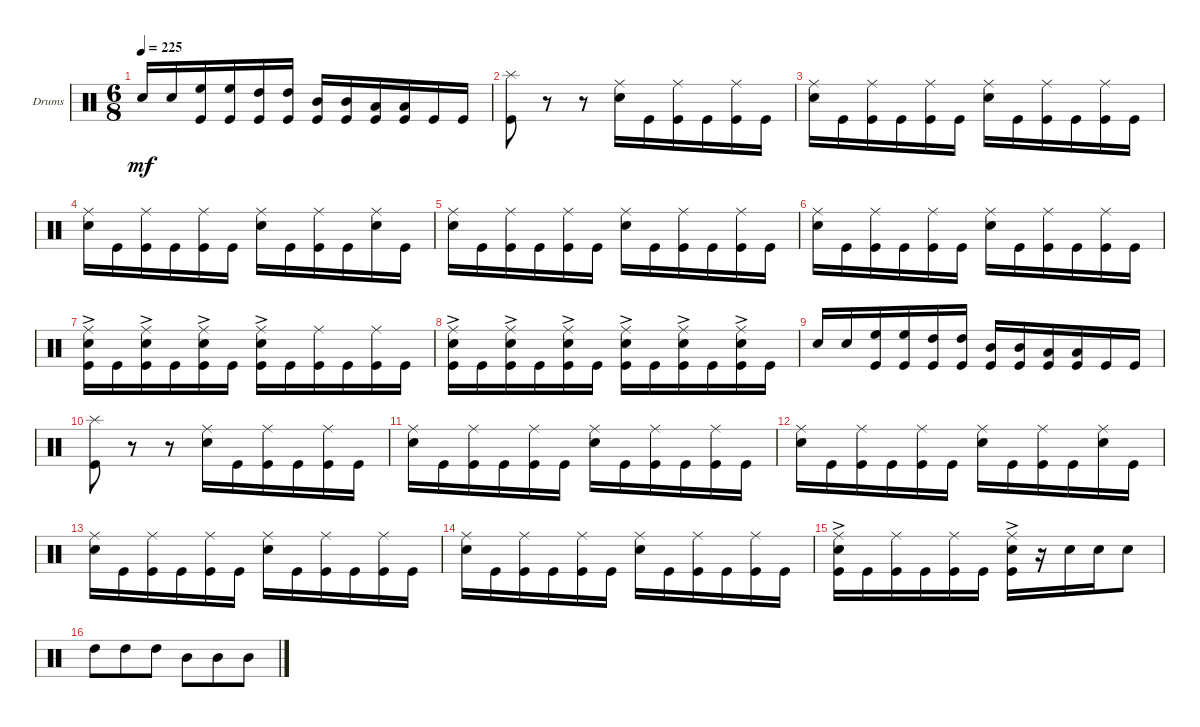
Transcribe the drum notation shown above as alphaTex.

\bracketExtendMode groupsimilarinstruments
\firstSystemTrackNameOrientation horizontal
\otherSystemsTrackNameOrientation horizontal
\track ("Drumkit" "Drums") {instrument percussion}
\staff {score}
\articulation defaults
\ts (6 8)
\tempo 225
\clef neutral
\ks c "Snare (hit) 2".16{dy mf} "Snare (hit) 2".16
("Kick (hit)" "High Floor Tom (hit)").16 ("Kick (hit)" "High Floor Tom (hit)").16 ("Kick (hit)" "High Tom (hit)").16 ("Kick (hit)" "High Tom (hit)").16 ("Kick (hit)" "Mid Tom (hit)").16 ("Kick (hit)" "Mid Tom (hit)").16 ("Kick (hit)" "Low Tom (hit)").16 ("Kick (hit)" "Low Tom (hit)").16 "Kick (hit)".16 "Kick (hit)".16 |
("Kick (hit)" "Splash (hit)").8 r.8 r.8 ("Snare (hit) 2" "Ride (middle)").16 "Kick (hit)".16 ("Kick (hit)" "Ride (middle)").16 "Kick (hit)".16 ("Kick (hit)" "Ride (middle)").16 "Kick (hit)".16 |
("Snare (hit) 2" "Ride (middle)").16 "Kick (hit)".16 ("Kick (hit)" "Ride (middle)").16 "Kick (hit)".16 ("Kick (hit)" "Ride (middle)").16 "Kick (hit)".16 ("Snare (hit) 2" "Ride (middle)").16 "Kick (hit)".16 ("Kick (hit)" "Ride (middle)").16 "Kick (hit)".16 ("Kick (hit)" "Ride (middle)").16 "Kick (hit)".16 |
("Snare (hit) 2" "Ride (middle)").16 "Kick (hit)".16 ("Kick (hit)" "Ride (middle)").16 "Kick (hit)".16 ("Kick (hit)" "Ride (middle)").16 "Kick (hit)".16 ("Snare (hit) 2" "Ride (middle)").16 "Kick (hit)".16 ("Kick (hit)" "Ride (middle)").16 "Kick (hit)".16 ("Ride (middle)" "Snare (hit) 2").16 "Kick (hit)".16 |
("Snare (hit) 2" "Ride (middle)").16 "Kick (hit)".16 ("Kick (hit)" "Ride (middle)").16 "Kick (hit)".16 ("Kick (hit)" "Ride (middle)").16 "Kick (hit)".16 ("Snare (hit) 2" "Ride (middle)").16 "Kick (hit)".16 ("Kick (hit)" "Ride (middle)").16 "Kick (hit)".16 ("Kick (hit)" "Ride (middle)").16 "Kick (hit)".16 |
("Snare (hit) 2" "Ride (middle)").16 "Kick (hit)".16 ("Kick (hit)" "Ride (middle)").16 "Kick (hit)".16 ("Kick (hit)" "Ride (middle)").16 "Kick (hit)".16 ("Snare (hit) 2" "Ride (middle)").16 "Kick (hit)".16 ("Kick (hit)" "Ride (middle)").16 "Kick (hit)".16 ("Kick (hit)" "Ride (middle)").16 "Kick (hit)".16 |
("Snare (hit) 2"{ac} "Kick (hit)" "Ride (middle)").16 "Kick (hit)".16 ("Snare (hit) 2"{ac} "Kick (hit)" "Ride (middle)").16 "Kick (hit)".16 ("Snare (hit) 2"{ac} "Kick (hit)" "Ride (middle)").16 "Kick (hit)".16 ("Snare (hit) 2"{ac} "Kick (hit)" "Ride (middle)").16 "Kick (hit)".16 ("Kick (hit)" "Ride (middle)").16 "Kick (hit)".16 ("Kick (hit)" "Ride (middle)").16 "Kick (hit)".16 |
("Snare (hit) 2"{ac} "Kick (hit)" "Ride (middle)").16 "Kick (hit)".16 ("Snare (hit) 2"{ac} "Kick (hit)" "Ride (middle)").16 "Kick (hit)".16 ("Snare (hit) 2"{ac} "Kick (hit)" "Ride (middle)").16 "Kick (hit)".16 ("Snare (hit) 2"{ac} "Kick (hit)" "Ride (middle)").16 "Kick (hit)".16 ("Kick (hit)" "Snare (hit) 2"{ac} "Ride (middle)").16 "Kick (hit)".16 ("Kick (hit)" "Snare (hit) 2"{ac} "Ride (middle)").16 "Kick (hit)".16 |
"Snare (hit) 2".16 "Snare (hit) 2".16 ("Kick (hit)" "High Floor Tom (hit)").16 ("Kick (hit)" "High Floor Tom (hit)").16 ("Kick (hit)" "High Tom (hit)").16 ("Kick (hit)" "High Tom (hit)").16 ("Kick (hit)" "Mid Tom (hit)").16 ("Kick (hit)" "Mid Tom (hit)").16 ("Kick (hit)" "Low Tom (hit)").16 ("Kick (hit)" "Low Tom (hit)").16 "Kick (hit)".16 "Kick (hit)".16 |
("Kick (hit)" "Splash (hit)").8 r.8 r.8 ("Snare (hit) 2" "Ride (middle)").16 "Kick (hit)".16 ("Kick (hit)" "Ride (middle)").16 "Kick (hit)".16 ("Kick (hit)" "Ride (middle)").16 "Kick (hit)".16 |
("Snare (hit) 2" "Ride (middle)").16 "Kick (hit)".16 ("Kick (hit)" "Ride (middle)").16 "Kick (hit)".16 ("Kick (hit)" "Ride (middle)").16 "Kick (hit)".16 ("Snare (hit) 2" "Ride (middle)").16 "Kick (hit)".16 ("Kick (hit)" "Ride (middle)").16 "Kick (hit)".16 ("Kick (hit)" "Ride (middle)").16 "Kick (hit)".16 |
("Snare (hit) 2" "Ride (middle)").16 "Kick (hit)".16 ("Kick (hit)" "Ride (middle)").16 "Kick (hit)".16 ("Kick (hit)" "Ride (middle)").16 "Kick (hit)".16 ("Snare (hit) 2" "Ride (middle)").16 "Kick (hit)".16 ("Kick (hit)" "Ride (middle)").16 "Kick (hit)".16 ("Ride (middle)" "Snare (hit) 2").16 "Kick (hit)".16 |
("Snare (hit) 2" "Ride (middle)").16 "Kick (hit)".16 ("Kick (hit)" "Ride (middle)").16 "Kick (hit)".16 ("Kick (hit)" "Ride (middle)").16 "Kick (hit)".16 ("Snare (hit) 2" "Ride (middle)").16 "Kick (hit)".16 ("Kick (hit)" "Ride (middle)").16 "Kick (hit)".16 ("Kick (hit)" "Ride (middle)").16 "Kick (hit)".16 |
("Snare (hit) 2" "Ride (middle)").16 "Kick (hit)".16 ("Kick (hit)" "Ride (middle)").16 "Kick (hit)".16 ("Kick (hit)" "Ride (middle)").16 "Kick (hit)".16 ("Snare (hit) 2" "Ride (middle)").16 "Kick (hit)".16 ("Kick (hit)" "Ride (middle)").16 "Kick (hit)".16 ("Kick (hit)" "Ride (middle)").16 "Kick (hit)".16 |
("Snare (hit) 2"{ac} "Kick (hit)" "Ride (middle)").16 "Kick (hit)".16 ("Kick (hit)" "Ride (middle)").16 "Kick (hit)".16 ("Kick (hit)" "Ride (middle)").16 "Kick (hit)".16 ("Snare (hit) 2"{ac} "Kick (hit)" "Ride (middle)").16 r.16 "Snare (hit) 2".16 "Snare (hit) 2".16 "Snare (hit) 2".8 |
"High Tom (hit)".8 "High Tom (hit)".8 "High Tom (hit)".8 "Mid Tom (hit)".8 "Mid Tom (hit)".8 "Mid Tom (hit)".8
